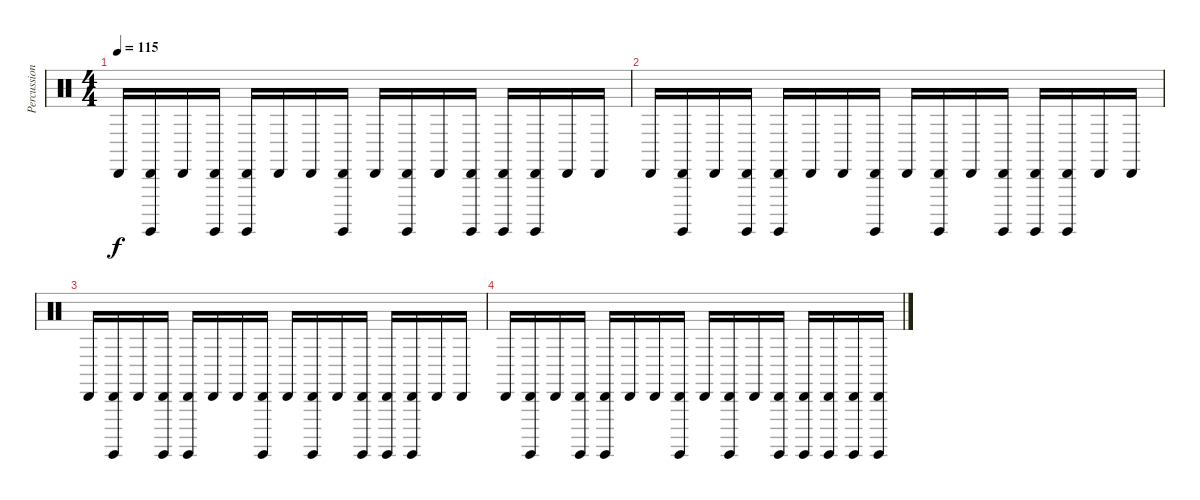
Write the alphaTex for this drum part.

\track ("Percussion" "Percussion") {instrument percussion}
\staff {score}
\articulation defaults
\ts (4 4)
\tempo 115
\clef neutral
\ks c "Cabasa (hit)".16{dy f}
("Cabasa (hit)" "Surdo (hit)").16 "Cabasa (hit)".16 ("Cabasa (hit)" "Surdo (hit)").16 ("Cabasa (hit)" "Surdo (hit)").16 "Cabasa (hit)".16 "Cabasa (hit)".16 ("Cabasa (hit)" "Surdo (hit)").16 "Cabasa (hit)".16 ("Cabasa (hit)" "Surdo (hit)").16 "Cabasa (hit)".16 ("Cabasa (hit)" "Surdo (hit)").16 ("Cabasa (hit)" "Surdo (hit)").16 ("Cabasa (hit)" "Surdo (hit)").16 "Cabasa (hit)".16 "Cabasa (hit)".16 |
"Cabasa (hit)".16 ("Cabasa (hit)" "Surdo (hit)").16 "Cabasa (hit)".16 ("Cabasa (hit)" "Surdo (hit)").16 ("Cabasa (hit)" "Surdo (hit)").16 "Cabasa (hit)".16 "Cabasa (hit)".16 ("Cabasa (hit)" "Surdo (hit)").16 "Cabasa (hit)".16 ("Cabasa (hit)" "Surdo (hit)").16 "Cabasa (hit)".16 ("Cabasa (hit)" "Surdo (hit)").16 ("Cabasa (hit)" "Surdo (hit)").16 ("Cabasa (hit)" "Surdo (hit)").16 "Cabasa (hit)".16 "Cabasa (hit)".16 |
"Cabasa (hit)".16 ("Cabasa (hit)" "Surdo (hit)").16 "Cabasa (hit)".16 ("Cabasa (hit)" "Surdo (hit)").16 ("Cabasa (hit)" "Surdo (hit)").16 "Cabasa (hit)".16 "Cabasa (hit)".16 ("Cabasa (hit)" "Surdo (hit)").16 "Cabasa (hit)".16 ("Cabasa (hit)" "Surdo (hit)").16 "Cabasa (hit)".16 ("Cabasa (hit)" "Surdo (hit)").16 ("Cabasa (hit)" "Surdo (hit)").16 ("Cabasa (hit)" "Surdo (hit)").16 "Cabasa (hit)".16 "Cabasa (hit)".16 |
"Cabasa (hit)".16 ("Cabasa (hit)" "Surdo (hit)").16 "Cabasa (hit)".16 ("Cabasa (hit)" "Surdo (hit)").16 ("Cabasa (hit)" "Surdo (hit)").16 "Cabasa (hit)".16 "Cabasa (hit)".16 ("Cabasa (hit)" "Surdo (hit)").16 "Cabasa (hit)".16 ("Cabasa (hit)" "Surdo (hit)").16 "Cabasa (hit)".16 ("Cabasa (hit)" "Surdo (hit)").16 ("Cabasa (hit)" "Surdo (hit)").16 ("Cabasa (hit)" "Surdo (hit)").16 ("Cabasa (hit)" "Surdo (hit)").16 ("Cabasa (hit)" "Surdo (hit)").16
